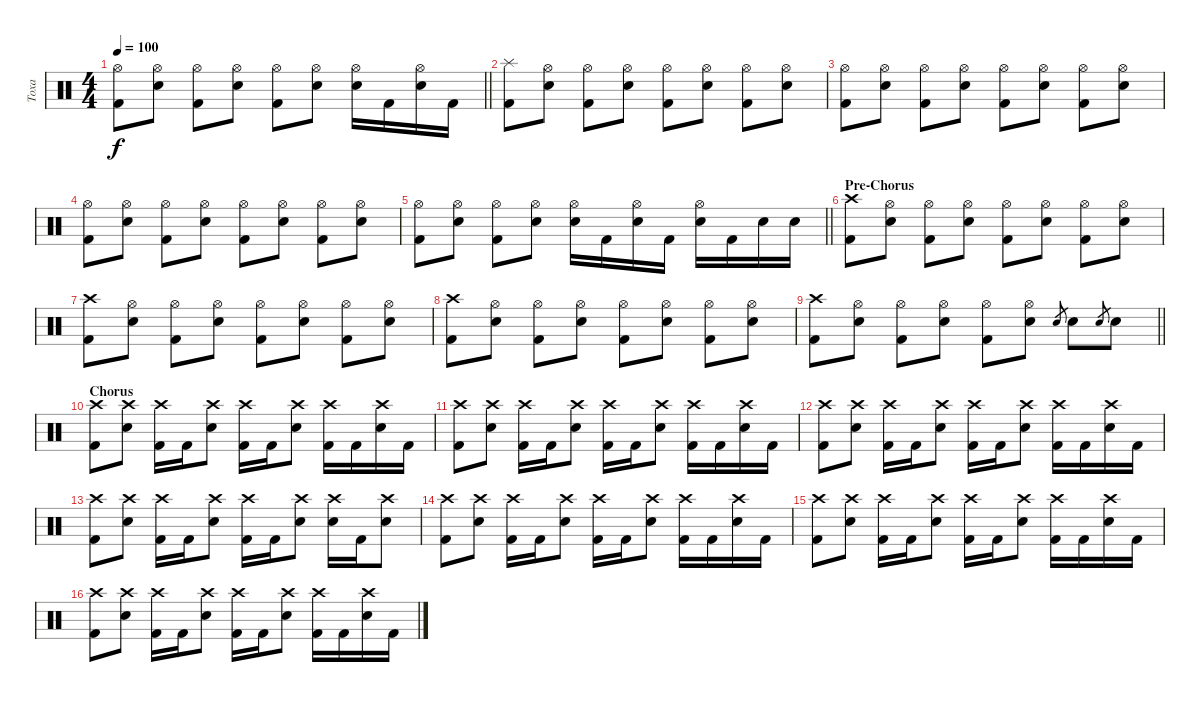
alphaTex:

\track ("Toxa" "Toxa") {instrument percussion}
\staff {score}
\articulation defaults
\ts (4 4)
\tempo 100
\clef neutral
\barLineRight lightlight
\ks c
("Kick (hit) 2" "Hi-Hat (open)").8{dy f} ("Snare (hit) 2" "Hi-Hat (open)").8 ("Kick (hit) 2" "Hi-Hat (open)").8 ("Snare (hit) 2" "Hi-Hat (open)").8 ("Kick (hit) 2" "Hi-Hat (open)").8 ("Snare (hit) 2" "Hi-Hat (open)").8 ("Snare (hit) 2" "Hi-Hat (open)").16 "Kick (hit) 2".16 ("Snare (hit) 2" "Hi-Hat (open)").16 "Kick (hit) 2".16 |
("Kick (hit) 2" "Splash (hit)").8 ("Snare (hit) 2" "Hi-Hat (open)").8 ("Kick (hit) 2" "Hi-Hat (open)").8 ("Snare (hit) 2" "Hi-Hat (open)").8 ("Kick (hit) 2" "Hi-Hat (open)").8 ("Snare (hit) 2" "Hi-Hat (open)").8 ("Kick (hit) 2" "Hi-Hat (open)").8 ("Snare (hit) 2" "Hi-Hat (open)").8 |
("Kick (hit) 2" "Hi-Hat (open)").8 ("Snare (hit) 2" "Hi-Hat (open)").8 ("Kick (hit) 2" "Hi-Hat (open)").8 ("Snare (hit) 2" "Hi-Hat (open)").8 ("Kick (hit) 2" "Hi-Hat (open)").8 ("Snare (hit) 2" "Hi-Hat (open)").8 ("Kick (hit) 2" "Hi-Hat (open)").8 ("Snare (hit) 2" "Hi-Hat (open)").8 |
("Kick (hit) 2" "Hi-Hat (open)").8 ("Snare (hit) 2" "Hi-Hat (open)").8 ("Kick (hit) 2" "Hi-Hat (open)").8 ("Snare (hit) 2" "Hi-Hat (open)").8 ("Kick (hit) 2" "Hi-Hat (open)").8 ("Snare (hit) 2" "Hi-Hat (open)").8 ("Kick (hit) 2" "Hi-Hat (open)").8 ("Snare (hit) 2" "Hi-Hat (open)").8 |
\barLineRight lightlight
("Kick (hit) 2" "Hi-Hat (open)").8 ("Snare (hit) 2" "Hi-Hat (open)").8 ("Kick (hit) 2" "Hi-Hat (open)").8 ("Snare (hit) 2" "Hi-Hat (open)").8 ("Snare (hit) 2" "Hi-Hat (open)").16 "Kick (hit) 2".16 ("Snare (hit) 2" "Hi-Hat (open)").16 "Kick (hit) 2".16 ("Snare (hit) 2" "Hi-Hat (open)").16 "Kick (hit) 2".16 "Snare (hit) 2".16 "Snare (hit) 2".16 |
\section ("" "Pre-Chorus")
("Kick (hit) 2" "Crash high (hit)").8 ("Snare (hit) 2" "Hi-Hat (open)").8 ("Kick (hit) 2" "Hi-Hat (open)").8 ("Snare (hit) 2" "Hi-Hat (open)").8 ("Kick (hit) 2" "Hi-Hat (open)").8 ("Snare (hit) 2" "Hi-Hat (open)").8 ("Kick (hit) 2" "Hi-Hat (open)").8 ("Snare (hit) 2" "Hi-Hat (open)").8 |
("Kick (hit) 2" "Crash high (hit)").8 ("Snare (hit) 2" "Hi-Hat (open)").8 ("Kick (hit) 2" "Hi-Hat (open)").8 ("Snare (hit) 2" "Hi-Hat (open)").8 ("Kick (hit) 2" "Hi-Hat (open)").8 ("Snare (hit) 2" "Hi-Hat (open)").8 ("Kick (hit) 2" "Hi-Hat (open)").8 ("Snare (hit) 2" "Hi-Hat (open)").8 |
("Kick (hit) 2" "Crash high (hit)").8 ("Snare (hit) 2" "Hi-Hat (open)").8 ("Kick (hit) 2" "Hi-Hat (open)").8 ("Snare (hit) 2" "Hi-Hat (open)").8 ("Kick (hit) 2" "Hi-Hat (open)").8 ("Snare (hit) 2" "Hi-Hat (open)").8 ("Kick (hit) 2" "Hi-Hat (open)").8 ("Snare (hit) 2" "Hi-Hat (open)").8 |
\barLineRight lightlight
("Kick (hit) 2" "Crash high (hit)").8 ("Snare (hit) 2" "Hi-Hat (open)").8 ("Kick (hit) 2" "Hi-Hat (open)").8 ("Snare (hit) 2" "Hi-Hat (open)").8 ("Kick (hit) 2" "Hi-Hat (open)").8 ("Snare (hit) 2" "Hi-Hat (open)").8 "Snare (hit) 2".8{gr} "Snare (hit) 2".8 "Snare (hit) 2".8{gr} "Snare (hit) 2".8 |
\section ("" "Chorus")
("Kick (hit) 2" "Crash high (hit)").8 ("Snare (hit) 2" "Crash high (hit)").8 ("Kick (hit) 2" "Crash high (hit)").16 "Kick (hit) 2".16 ("Snare (hit) 2" "Crash high (hit)").8 ("Kick (hit) 2" "Crash high (hit)").16 "Kick (hit) 2".16 ("Snare (hit) 2" "Crash high (hit)").8 ("Kick (hit) 2" "Crash high (hit)").16 "Kick (hit) 2".16 ("Snare (hit) 2" "Crash high (hit)").16 "Kick (hit) 2".16 |
("Kick (hit) 2" "Crash high (hit)").8 ("Snare (hit) 2" "Crash high (hit)").8 ("Kick (hit) 2" "Crash high (hit)").16 "Kick (hit) 2".16 ("Snare (hit) 2" "Crash high (hit)").8 ("Kick (hit) 2" "Crash high (hit)").16 "Kick (hit) 2".16 ("Snare (hit) 2" "Crash high (hit)").8 ("Kick (hit) 2" "Crash high (hit)").16 "Kick (hit) 2".16 ("Snare (hit) 2" "Crash high (hit)").16 "Kick (hit) 2".16 |
("Kick (hit) 2" "Crash high (hit)").8 ("Snare (hit) 2" "Crash high (hit)").8 ("Kick (hit) 2" "Crash high (hit)").16 "Kick (hit) 2".16 ("Snare (hit) 2" "Crash high (hit)").8 ("Kick (hit) 2" "Crash high (hit)").16 "Kick (hit) 2".16 ("Snare (hit) 2" "Crash high (hit)").8 ("Kick (hit) 2" "Crash high (hit)").16 "Kick (hit) 2".16 ("Snare (hit) 2" "Crash high (hit)").16 "Kick (hit) 2".16 |
("Kick (hit) 2" "Crash high (hit)").8 ("Snare (hit) 2" "Crash high (hit)").8 ("Kick (hit) 2" "Crash high (hit)").16 "Kick (hit) 2".16 ("Snare (hit) 2" "Crash high (hit)").8 ("Kick (hit) 2" "Crash high (hit)").16 "Kick (hit) 2".16 ("Snare (hit) 2" "Crash high (hit)").8 ("Snare (hit) 2" "Crash high (hit)").16 "Kick (hit) 2".16 ("Snare (hit) 2" "Crash high (hit)").8 |
("Kick (hit) 2" "Crash high (hit)").8 ("Snare (hit) 2" "Crash high (hit)").8 ("Kick (hit) 2" "Crash high (hit)").16 "Kick (hit) 2".16 ("Snare (hit) 2" "Crash high (hit)").8 ("Kick (hit) 2" "Crash high (hit)").16 "Kick (hit) 2".16 ("Snare (hit) 2" "Crash high (hit)").8 ("Kick (hit) 2" "Crash high (hit)").16 "Kick (hit) 2".16 ("Snare (hit) 2" "Crash high (hit)").16 "Kick (hit) 2".16 |
("Kick (hit) 2" "Crash high (hit)").8 ("Snare (hit) 2" "Crash high (hit)").8 ("Kick (hit) 2" "Crash high (hit)").16 "Kick (hit) 2".16 ("Snare (hit) 2" "Crash high (hit)").8 ("Kick (hit) 2" "Crash high (hit)").16 "Kick (hit) 2".16 ("Snare (hit) 2" "Crash high (hit)").8 ("Kick (hit) 2" "Crash high (hit)").16 "Kick (hit) 2".16 ("Snare (hit) 2" "Crash high (hit)").16 "Kick (hit) 2".16 |
("Kick (hit) 2" "Crash high (hit)").8 ("Snare (hit) 2" "Crash high (hit)").8 ("Kick (hit) 2" "Crash high (hit)").16 "Kick (hit) 2".16 ("Snare (hit) 2" "Crash high (hit)").8 ("Kick (hit) 2" "Crash high (hit)").16 "Kick (hit) 2".16 ("Snare (hit) 2" "Crash high (hit)").8 ("Kick (hit) 2" "Crash high (hit)").16 "Kick (hit) 2".16 ("Snare (hit) 2" "Crash high (hit)").16 "Kick (hit) 2".16
